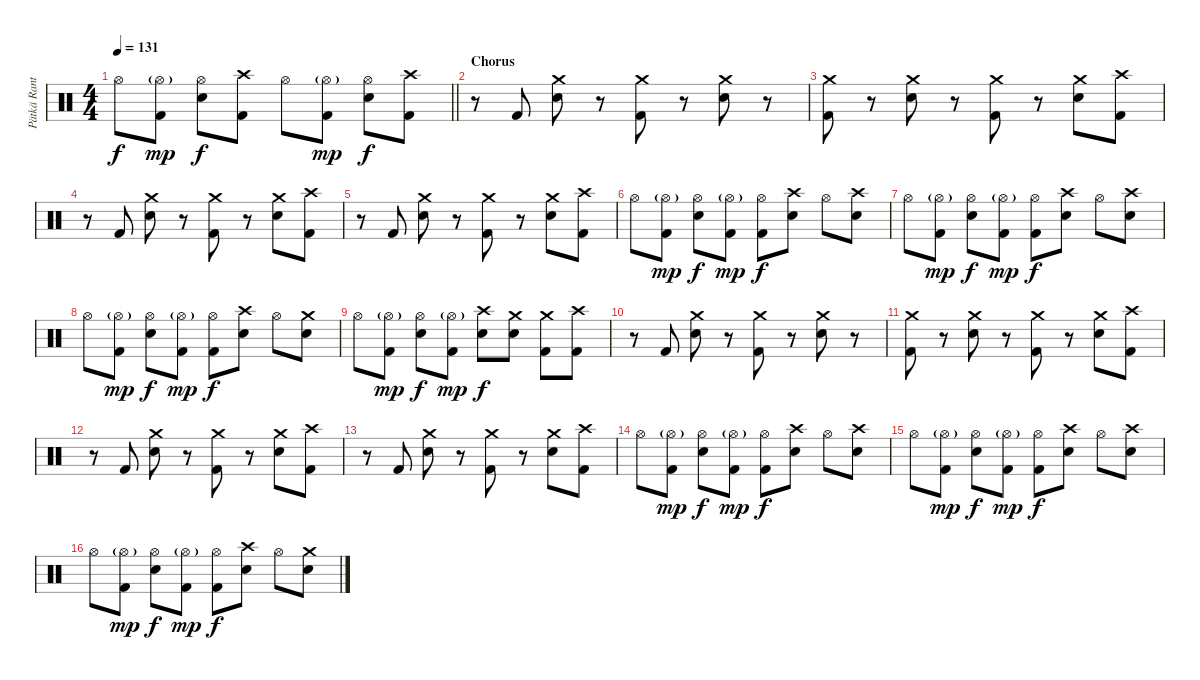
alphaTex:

\track ("Pätkä Rantala (Drums)" "Pätkä Rant") {instrument percussion}
\staff {score}
\articulation defaults
\ts (4 4)
\tempo 131
\clef neutral
\barLineRight lightlight
\ks c "Hi-Hat (open)".8{dy f}
("Hi-Hat (open)"{g} "Kick (hit) 2").8{dy mp} ("Hi-Hat (open)" "Snare (hit) 2").8{dy f} ("Crash high (hit)" "Kick (hit) 2").8 "Hi-Hat (open)".8 ("Hi-Hat (open)"{g} "Kick (hit) 2").8{dy mp} ("Hi-Hat (open)" "Snare (hit) 2").8{dy f} ("Crash high (hit)" "Kick (hit) 2").8 |
\section ("" "Chorus")
r.8 "Kick (hit) 2".8 ("Crash medium (hit)" "Snare (hit) 2").8 r.8 ("Crash medium (hit)" "Kick (hit) 2").8 r.8 ("Crash medium (hit)" "Snare (hit) 2").8 r.8 |
("Crash medium (hit)" "Kick (hit) 2").8 r.8 ("Crash medium (hit)" "Snare (hit) 2").8 r.8 ("Crash medium (hit)" "Kick (hit) 2").8 r.8 ("Crash medium (hit)" "Snare (hit) 2").8 ("Crash high (hit)" "Kick (hit) 2").8 |
r.8 "Kick (hit) 2".8 ("Crash medium (hit)" "Snare (hit) 2").8 r.8 ("Crash medium (hit)" "Kick (hit) 2").8 r.8 ("Crash medium (hit)" "Snare (hit) 2").8 ("Crash high (hit)" "Kick (hit) 2").8 |
r.8 "Kick (hit) 2".8 ("Crash medium (hit)" "Snare (hit) 2").8 r.8 ("Crash medium (hit)" "Kick (hit) 2").8 r.8 ("Crash medium (hit)" "Snare (hit) 2").8 ("Crash high (hit)" "Kick (hit) 2").8 |
"Hi-Hat (open)".8 ("Hi-Hat (open)"{g} "Kick (hit) 2").8{dy mp} ("Hi-Hat (open)" "Snare (hit) 2").8{dy f} ("Hi-Hat (open)"{g} "Kick (hit) 2").8{dy mp} ("Hi-Hat (open)" "Kick (hit) 2").8{dy f} ("Crash high (hit)" "Snare (hit) 2").8 "Hi-Hat (open)".8 ("Crash high (hit)" "Snare (hit) 2").8 |
"Hi-Hat (open)".8 ("Hi-Hat (open)"{g} "Kick (hit) 2").8{dy mp} ("Hi-Hat (open)" "Snare (hit) 2").8{dy f} ("Hi-Hat (open)"{g} "Kick (hit) 2").8{dy mp} ("Hi-Hat (open)" "Kick (hit) 2").8{dy f} ("Crash high (hit)" "Snare (hit) 2").8 "Hi-Hat (open)".8 ("Crash high (hit)" "Snare (hit) 2").8 |
"Hi-Hat (open)".8 ("Hi-Hat (open)"{g} "Kick (hit) 2").8{dy mp} ("Hi-Hat (open)" "Snare (hit) 2").8{dy f} ("Hi-Hat (open)"{g} "Kick (hit) 2").8{dy mp} ("Hi-Hat (open)" "Kick (hit) 2").8{dy f} ("Crash high (hit)" "Snare (hit) 2").8 "Hi-Hat (open)".8 ("Crash medium (hit)" "Snare (hit) 2").8 |
"Hi-Hat (open)".8 ("Hi-Hat (open)"{g} "Kick (hit) 2").8{dy mp} ("Hi-Hat (open)" "Snare (hit) 2").8{dy f} ("Hi-Hat (open)"{g} "Kick (hit) 2").8{dy mp} ("Crash high (hit)" "Snare (hit) 2").8{dy f} ("Crash medium (hit)" "Snare (hit) 2").8 ("Crash medium (hit)" "Kick (hit) 2").8 ("Crash high (hit)" "Kick (hit) 2").8 |
r.8 "Kick (hit) 2".8 ("Crash medium (hit)" "Snare (hit) 2").8 r.8 ("Crash medium (hit)" "Kick (hit) 2").8 r.8 ("Crash medium (hit)" "Snare (hit) 2").8 r.8 |
("Crash medium (hit)" "Kick (hit) 2").8 r.8 ("Crash medium (hit)" "Snare (hit) 2").8 r.8 ("Crash medium (hit)" "Kick (hit) 2").8 r.8 ("Crash medium (hit)" "Snare (hit) 2").8 ("Crash high (hit)" "Kick (hit) 2").8 |
r.8 "Kick (hit) 2".8 ("Crash medium (hit)" "Snare (hit) 2").8 r.8 ("Crash medium (hit)" "Kick (hit) 2").8 r.8 ("Crash medium (hit)" "Snare (hit) 2").8 ("Crash high (hit)" "Kick (hit) 2").8 |
r.8 "Kick (hit) 2".8 ("Crash medium (hit)" "Snare (hit) 2").8 r.8 ("Crash medium (hit)" "Kick (hit) 2").8 r.8 ("Crash medium (hit)" "Snare (hit) 2").8 ("Crash high (hit)" "Kick (hit) 2").8 |
"Hi-Hat (open)".8 ("Hi-Hat (open)"{g} "Kick (hit) 2").8{dy mp} ("Hi-Hat (open)" "Snare (hit) 2").8{dy f} ("Hi-Hat (open)"{g} "Kick (hit) 2").8{dy mp} ("Hi-Hat (open)" "Kick (hit) 2").8{dy f} ("Crash high (hit)" "Snare (hit) 2").8 "Hi-Hat (open)".8 ("Crash high (hit)" "Snare (hit) 2").8 |
"Hi-Hat (open)".8 ("Hi-Hat (open)"{g} "Kick (hit) 2").8{dy mp} ("Hi-Hat (open)" "Snare (hit) 2").8{dy f} ("Hi-Hat (open)"{g} "Kick (hit) 2").8{dy mp} ("Hi-Hat (open)" "Kick (hit) 2").8{dy f} ("Crash high (hit)" "Snare (hit) 2").8 "Hi-Hat (open)".8 ("Crash high (hit)" "Snare (hit) 2").8 |
"Hi-Hat (open)".8 ("Hi-Hat (open)"{g} "Kick (hit) 2").8{dy mp} ("Hi-Hat (open)" "Snare (hit) 2").8{dy f} ("Hi-Hat (open)"{g} "Kick (hit) 2").8{dy mp} ("Hi-Hat (open)" "Kick (hit) 2").8{dy f} ("Crash high (hit)" "Snare (hit) 2").8 "Hi-Hat (open)".8 ("Crash medium (hit)" "Snare (hit) 2").8
